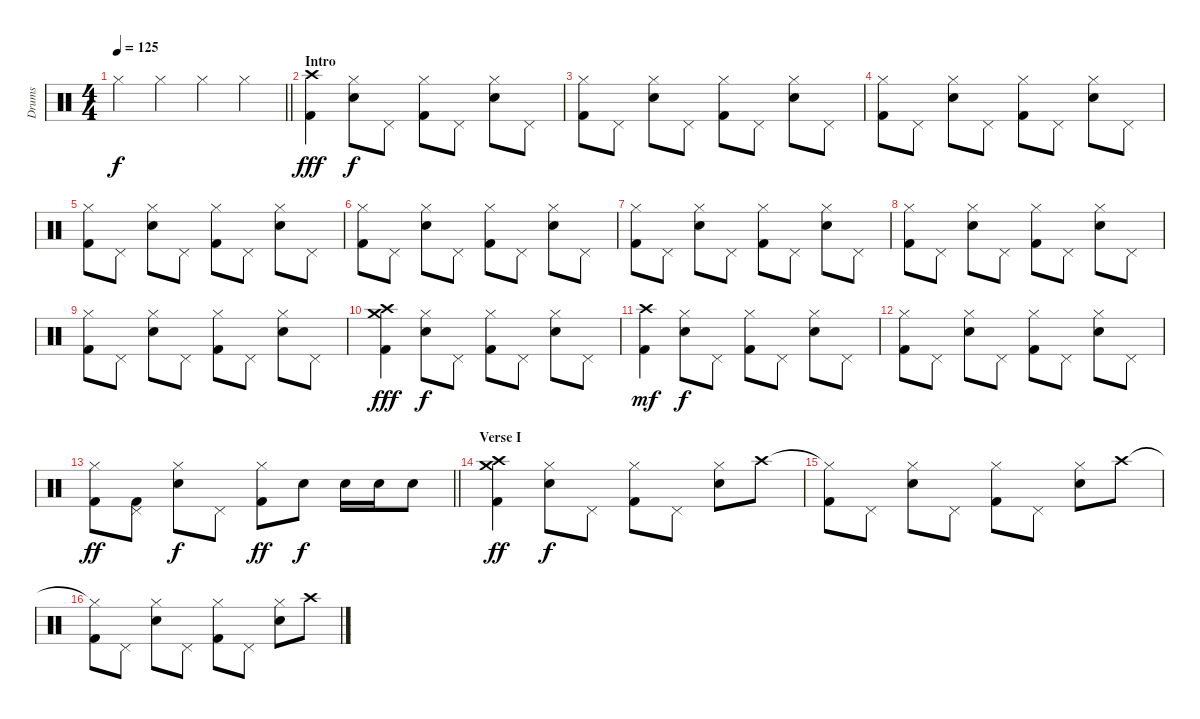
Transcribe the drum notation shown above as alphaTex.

\track ("Drums" "Drums") {instrument percussion}
\staff {score}
\articulation defaults
\ts (4 4)
\tempo 125
\clef neutral
\barLineRight lightlight
\ks c "Hi-Hat (closed)".4{dy f} "Hi-Hat (closed)".4 "Hi-Hat (closed)".4 "Hi-Hat (closed)".4
|
\section ("" "Intro")
("Crash high (hit)" "Kick (hit) 2").4{dy fff} ("Hi-Hat (closed)" "Electric Snare (hit)").8{dy f} "Pedal Hi-Hat (hit)".8 ("Hi-Hat (closed)" "Kick (hit) 2").8 "Pedal Hi-Hat (hit)".8 ("Hi-Hat (closed)" "Electric Snare (hit)").8 "Pedal Hi-Hat (hit)".8 |
("Hi-Hat (closed)" "Kick (hit) 2").8 "Pedal Hi-Hat (hit)".8 ("Hi-Hat (closed)" "Electric Snare (hit)").8 "Pedal Hi-Hat (hit)".8 ("Hi-Hat (closed)" "Kick (hit) 2").8 "Pedal Hi-Hat (hit)".8 ("Hi-Hat (closed)" "Electric Snare (hit)").8 "Pedal Hi-Hat (hit)".8 |
("Hi-Hat (closed)" "Kick (hit) 2").8 "Pedal Hi-Hat (hit)".8 ("Hi-Hat (closed)" "Electric Snare (hit)").8 "Pedal Hi-Hat (hit)".8 ("Hi-Hat (closed)" "Kick (hit) 2").8 "Pedal Hi-Hat (hit)".8 ("Hi-Hat (closed)" "Electric Snare (hit)").8 "Pedal Hi-Hat (hit)".8 |
("Hi-Hat (closed)" "Kick (hit) 2").8 "Pedal Hi-Hat (hit)".8 ("Hi-Hat (closed)" "Electric Snare (hit)").8 "Pedal Hi-Hat (hit)".8 ("Hi-Hat (closed)" "Kick (hit) 2").8 "Pedal Hi-Hat (hit)".8 ("Hi-Hat (closed)" "Electric Snare (hit)").8 "Pedal Hi-Hat (hit)".8 |
("Hi-Hat (closed)" "Kick (hit) 2").8 "Pedal Hi-Hat (hit)".8 ("Hi-Hat (closed)" "Electric Snare (hit)").8 "Pedal Hi-Hat (hit)".8 ("Hi-Hat (closed)" "Kick (hit) 2").8 "Pedal Hi-Hat (hit)".8 ("Hi-Hat (closed)" "Electric Snare (hit)").8 "Pedal Hi-Hat (hit)".8 |
("Hi-Hat (closed)" "Kick (hit) 2").8 "Pedal Hi-Hat (hit)".8 ("Hi-Hat (closed)" "Electric Snare (hit)").8 "Pedal Hi-Hat (hit)".8 ("Hi-Hat (closed)" "Kick (hit) 2").8 "Pedal Hi-Hat (hit)".8 ("Hi-Hat (closed)" "Electric Snare (hit)").8 "Pedal Hi-Hat (hit)".8 |
("Hi-Hat (closed)" "Kick (hit) 2").8 "Pedal Hi-Hat (hit)".8 ("Hi-Hat (closed)" "Electric Snare (hit)").8 "Pedal Hi-Hat (hit)".8 ("Hi-Hat (closed)" "Kick (hit) 2").8 "Pedal Hi-Hat (hit)".8 ("Hi-Hat (closed)" "Electric Snare (hit)").8 "Pedal Hi-Hat (hit)".8 |
("Hi-Hat (closed)" "Kick (hit) 2").8 "Pedal Hi-Hat (hit)".8 ("Hi-Hat (closed)" "Electric Snare (hit)").8 "Pedal Hi-Hat (hit)".8 ("Hi-Hat (closed)" "Kick (hit) 2").8 "Pedal Hi-Hat (hit)".8 ("Hi-Hat (closed)" "Electric Snare (hit)").8 "Pedal Hi-Hat (hit)".8 |
("Crash high (hit)" "Crash medium (hit)" "Kick (hit) 2").4{dy fff} ("Hi-Hat (closed)" "Electric Snare (hit)").8{dy f} "Pedal Hi-Hat (hit)".8 ("Hi-Hat (closed)" "Kick (hit) 2").8 "Pedal Hi-Hat (hit)".8 ("Hi-Hat (closed)" "Electric Snare (hit)").8 "Pedal Hi-Hat (hit)".8 |
("Crash high (hit)" "Kick (hit) 2").4{dy mf} ("Hi-Hat (closed)" "Electric Snare (hit)").8{dy f} "Pedal Hi-Hat (hit)".8 ("Hi-Hat (closed)" "Kick (hit) 2").8 "Pedal Hi-Hat (hit)".8 ("Hi-Hat (closed)" "Electric Snare (hit)").8 "Pedal Hi-Hat (hit)".8 |
("Hi-Hat (closed)" "Kick (hit) 2").8 "Pedal Hi-Hat (hit)".8 ("Hi-Hat (closed)" "Electric Snare (hit)").8 "Pedal Hi-Hat (hit)".8 ("Hi-Hat (closed)" "Kick (hit) 2").8 "Pedal Hi-Hat (hit)".8 ("Hi-Hat (closed)" "Electric Snare (hit)").8 "Pedal Hi-Hat (hit)".8 |
\barLineRight lightlight
("Hi-Hat (closed)" "Kick (hit) 2").8{dy ff} ("Pedal Hi-Hat (hit)" "Kick (hit) 2").8 ("Hi-Hat (closed)" "Electric Snare (hit)").8{dy f} "Pedal Hi-Hat (hit)".8 ("Hi-Hat (closed)" "Kick (hit) 2").8{dy ff} "Snare (hit) 2".8{dy f} "Snare (hit) 2".16 "Snare (hit) 2".16 "Snare (hit) 2".8 |
\section ("" "Verse I")
("Crash high (hit)" "Crash medium (hit)" "Kick (hit) 2").4{dy ff} ("Hi-Hat (closed)" "Electric Snare (hit)").8{dy f} "Pedal Hi-Hat (hit)".8 ("Hi-Hat (closed)" "Kick (hit) 2").8 "Pedal Hi-Hat (hit)".8 ("Hi-Hat (closed)" "Electric Snare (hit)").8 "Crash high (hit)".8 |
("Hi-Hat (closed)"{t} "Kick (hit) 2").8 "Pedal Hi-Hat (hit)".8 ("Hi-Hat (closed)" "Electric Snare (hit)").8 "Pedal Hi-Hat (hit)".8 ("Hi-Hat (closed)" "Kick (hit) 2").8 "Pedal Hi-Hat (hit)".8 ("Hi-Hat (closed)" "Electric Snare (hit)").8 "Crash high (hit)".8 |
("Hi-Hat (closed)"{t} "Kick (hit) 2").8 "Pedal Hi-Hat (hit)".8 ("Hi-Hat (closed)" "Electric Snare (hit)").8 "Pedal Hi-Hat (hit)".8 ("Hi-Hat (closed)" "Kick (hit) 2").8 "Pedal Hi-Hat (hit)".8 ("Hi-Hat (closed)" "Electric Snare (hit)").8 "Crash high (hit)".8
